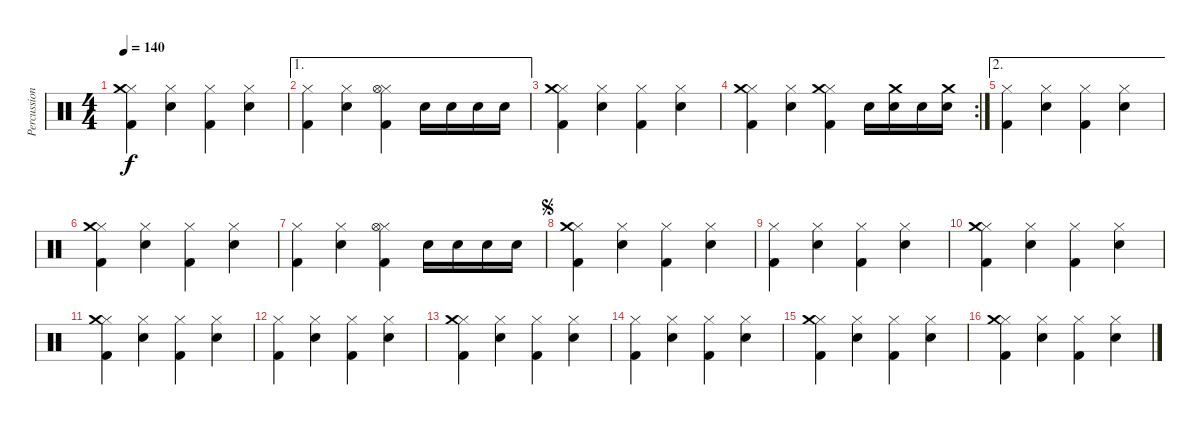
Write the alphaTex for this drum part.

\track ("Percussion" "Percussion") {instrument percussion}
\staff {score}
\articulation defaults
\ts (4 4)
\tempo 140
\clef neutral
\ks c
("Hi-Hat (closed)" "Kick (hit) 2" "Crash medium (hit)").4{dy f} ("Hi-Hat (closed)" "Electric Snare (hit)").4 ("Hi-Hat (closed)" "Kick (hit) 2").4 ("Hi-Hat (closed)" "Electric Snare (hit)").4 |
\ae 1
("Hi-Hat (closed)" "Kick (hit) 2").4 ("Hi-Hat (closed)" "Electric Snare (hit)").4 ("Hi-Hat (closed)" "Kick (hit) 2" "Hi-Hat (open)").4 "Electric Snare (hit)".16 "Electric Snare (hit)".16 "Electric Snare (hit)".16 "Electric Snare (hit)".16 |
("Hi-Hat (closed)" "Kick (hit) 2" "Crash medium (hit)").4 ("Hi-Hat (closed)" "Electric Snare (hit)").4 ("Hi-Hat (closed)" "Kick (hit) 2").4 ("Hi-Hat (closed)" "Electric Snare (hit)").4 |
\rc 2
("Hi-Hat (closed)" "Kick (hit) 2" "Crash medium (hit)").4 ("Hi-Hat (closed)" "Electric Snare (hit)").4 ("Hi-Hat (closed)" "Kick (hit) 2" "Crash medium (hit)").4 "Electric Snare (hit)".16 ("Electric Snare (hit)" "Crash medium (hit)").16 "Electric Snare (hit)".16 ("Electric Snare (hit)" "Crash medium (hit)").16 |
\ae 2
("Hi-Hat (closed)" "Kick (hit) 2").4 ("Hi-Hat (closed)" "Electric Snare (hit)").4 ("Hi-Hat (closed)" "Kick (hit) 2").4 ("Hi-Hat (closed)" "Electric Snare (hit)").4 |
("Hi-Hat (closed)" "Kick (hit) 2" "Crash medium (hit)").4 ("Hi-Hat (closed)" "Electric Snare (hit)").4 ("Hi-Hat (closed)" "Kick (hit) 2").4 ("Hi-Hat (closed)" "Electric Snare (hit)").4 |
("Hi-Hat (closed)" "Kick (hit) 2").4 ("Hi-Hat (closed)" "Electric Snare (hit)").4 ("Hi-Hat (closed)" "Kick (hit) 2" "Hi-Hat (open)").4 "Electric Snare (hit)".16 "Electric Snare (hit)".16 "Electric Snare (hit)".16 "Electric Snare (hit)".16 |
\jump segno
("Hi-Hat (closed)" "Kick (hit) 2" "Crash medium (hit)").4 ("Hi-Hat (closed)" "Electric Snare (hit)").4 ("Hi-Hat (closed)" "Kick (hit) 2").4 ("Hi-Hat (closed)" "Electric Snare (hit)").4 |
("Hi-Hat (closed)" "Kick (hit) 2").4 ("Hi-Hat (closed)" "Electric Snare (hit)").4 ("Hi-Hat (closed)" "Kick (hit) 2").4 ("Hi-Hat (closed)" "Electric Snare (hit)").4 |
("Hi-Hat (closed)" "Kick (hit) 2" "Crash medium (hit)").4 ("Hi-Hat (closed)" "Electric Snare (hit)").4 ("Hi-Hat (closed)" "Kick (hit) 2").4 ("Hi-Hat (closed)" "Electric Snare (hit)").4 |
("Hi-Hat (closed)" "Kick (hit) 2" "Crash medium (hit)").4 ("Hi-Hat (closed)" "Electric Snare (hit)").4 ("Hi-Hat (closed)" "Kick (hit) 2").4 ("Hi-Hat (closed)" "Electric Snare (hit)").4 |
("Hi-Hat (closed)" "Kick (hit) 2").4 ("Hi-Hat (closed)" "Electric Snare (hit)").4 ("Hi-Hat (closed)" "Kick (hit) 2").4 ("Hi-Hat (closed)" "Electric Snare (hit)").4 |
("Hi-Hat (closed)" "Kick (hit) 2" "Crash medium (hit)").4 ("Hi-Hat (closed)" "Electric Snare (hit)").4 ("Hi-Hat (closed)" "Kick (hit) 2").4 ("Hi-Hat (closed)" "Electric Snare (hit)").4 |
("Hi-Hat (closed)" "Kick (hit) 2").4 ("Hi-Hat (closed)" "Electric Snare (hit)").4 ("Hi-Hat (closed)" "Kick (hit) 2").4 ("Hi-Hat (closed)" "Electric Snare (hit)").4 |
("Hi-Hat (closed)" "Kick (hit) 2" "Crash medium (hit)").4 ("Hi-Hat (closed)" "Electric Snare (hit)").4 ("Hi-Hat (closed)" "Kick (hit) 2").4 ("Hi-Hat (closed)" "Electric Snare (hit)").4 |
("Hi-Hat (closed)" "Kick (hit) 2" "Crash medium (hit)").4 ("Hi-Hat (closed)" "Electric Snare (hit)").4 ("Hi-Hat (closed)" "Kick (hit) 2").4 ("Hi-Hat (closed)" "Electric Snare (hit)").4
